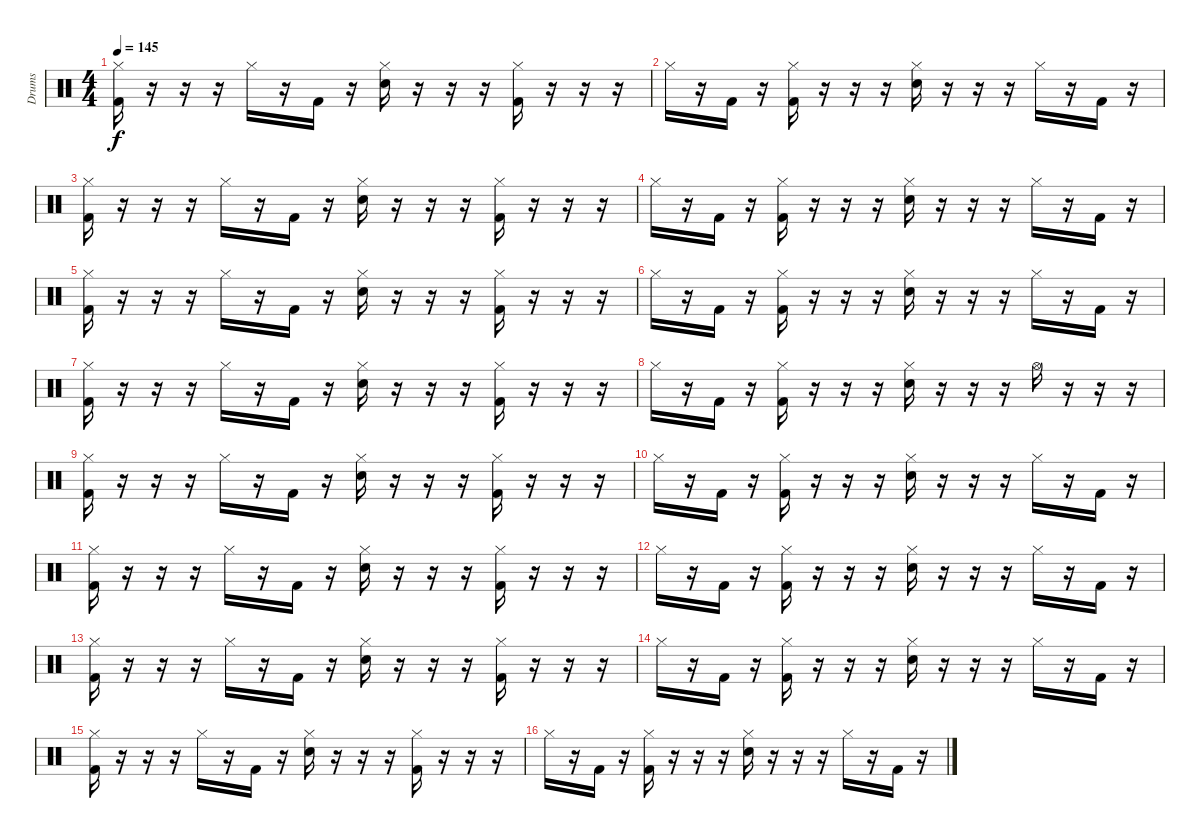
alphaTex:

\track ("Drums" "Drums") {instrument percussion}
\staff {score}
\articulation defaults
\ts (4 4)
\tempo 145
\clef neutral
\ks c
("Hi-Hat (closed)" "Kick (hit) 2").16{dy f} r.16 r.16 r.16 "Hi-Hat (closed)".16 r.16 "Kick (hit) 2".16 r.16 ("Hi-Hat (closed)" "Electric Snare (hit)").16 r.16 r.16 r.16 ("Hi-Hat (closed)" "Kick (hit) 2").16 r.16 r.16 r.16 |
"Hi-Hat (closed)".16 r.16 "Kick (hit) 2".16 r.16 ("Hi-Hat (closed)" "Kick (hit) 2").16 r.16 r.16 r.16 ("Hi-Hat (closed)" "Electric Snare (hit)").16 r.16 r.16 r.16 "Hi-Hat (closed)".16 r.16 "Kick (hit) 2".16 r.16 |
("Hi-Hat (closed)" "Kick (hit) 2").16 r.16 r.16 r.16 "Hi-Hat (closed)".16 r.16 "Kick (hit) 2".16 r.16 ("Hi-Hat (closed)" "Electric Snare (hit)").16 r.16 r.16 r.16 ("Hi-Hat (closed)" "Kick (hit) 2").16 r.16 r.16 r.16 |
"Hi-Hat (closed)".16 r.16 "Kick (hit) 2".16 r.16 ("Hi-Hat (closed)" "Kick (hit) 2").16 r.16 r.16 r.16 ("Hi-Hat (closed)" "Electric Snare (hit)").16 r.16 r.16 r.16 "Hi-Hat (closed)".16 r.16 "Kick (hit) 2".16 r.16 |
("Hi-Hat (closed)" "Kick (hit) 2").16 r.16 r.16 r.16 "Hi-Hat (closed)".16 r.16 "Kick (hit) 2".16 r.16 ("Hi-Hat (closed)" "Electric Snare (hit)").16 r.16 r.16 r.16 ("Hi-Hat (closed)" "Kick (hit) 2").16 r.16 r.16 r.16 |
"Hi-Hat (closed)".16 r.16 "Kick (hit) 2".16 r.16 ("Hi-Hat (closed)" "Kick (hit) 2").16 r.16 r.16 r.16 ("Hi-Hat (closed)" "Electric Snare (hit)").16 r.16 r.16 r.16 "Hi-Hat (closed)".16 r.16 "Kick (hit) 2".16 r.16 |
("Hi-Hat (closed)" "Kick (hit) 2").16 r.16 r.16 r.16 "Hi-Hat (closed)".16 r.16 "Kick (hit) 2".16 r.16 ("Hi-Hat (closed)" "Electric Snare (hit)").16 r.16 r.16 r.16 ("Hi-Hat (closed)" "Kick (hit) 2").16 r.16 r.16 r.16 |
"Hi-Hat (closed)".16 r.16 "Kick (hit) 2".16 r.16 ("Hi-Hat (closed)" "Kick (hit) 2").16 r.16 r.16 r.16 ("Hi-Hat (closed)" "Electric Snare (hit)").16 r.16 r.16 r.16 "Hi-Hat (open)".16 r.16 r.16 r.16 |
("Hi-Hat (closed)" "Kick (hit) 2").16 r.16 r.16 r.16 "Hi-Hat (closed)".16 r.16 "Kick (hit) 2".16 r.16 ("Hi-Hat (closed)" "Electric Snare (hit)").16 r.16 r.16 r.16 ("Hi-Hat (closed)" "Kick (hit) 2").16 r.16 r.16 r.16 |
"Hi-Hat (closed)".16 r.16 "Kick (hit) 2".16 r.16 ("Hi-Hat (closed)" "Kick (hit) 2").16 r.16 r.16 r.16 ("Hi-Hat (closed)" "Electric Snare (hit)").16 r.16 r.16 r.16 "Hi-Hat (closed)".16 r.16 "Kick (hit) 2".16 r.16 |
("Hi-Hat (closed)" "Kick (hit) 2").16 r.16 r.16 r.16 "Hi-Hat (closed)".16 r.16 "Kick (hit) 2".16 r.16 ("Hi-Hat (closed)" "Electric Snare (hit)").16 r.16 r.16 r.16 ("Hi-Hat (closed)" "Kick (hit) 2").16 r.16 r.16 r.16 |
"Hi-Hat (closed)".16 r.16 "Kick (hit) 2".16 r.16 ("Hi-Hat (closed)" "Kick (hit) 2").16 r.16 r.16 r.16 ("Hi-Hat (closed)" "Electric Snare (hit)").16 r.16 r.16 r.16 "Hi-Hat (closed)".16 r.16 "Kick (hit) 2".16 r.16 |
("Hi-Hat (closed)" "Kick (hit) 2").16 r.16 r.16 r.16 "Hi-Hat (closed)".16 r.16 "Kick (hit) 2".16 r.16 ("Hi-Hat (closed)" "Electric Snare (hit)").16 r.16 r.16 r.16 ("Hi-Hat (closed)" "Kick (hit) 2").16 r.16 r.16 r.16 |
"Hi-Hat (closed)".16 r.16 "Kick (hit) 2".16 r.16 ("Hi-Hat (closed)" "Kick (hit) 2").16 r.16 r.16 r.16 ("Hi-Hat (closed)" "Electric Snare (hit)").16 r.16 r.16 r.16 "Hi-Hat (closed)".16 r.16 "Kick (hit) 2".16 r.16 |
("Hi-Hat (closed)" "Kick (hit) 2").16 r.16 r.16 r.16 "Hi-Hat (closed)".16 r.16 "Kick (hit) 2".16 r.16 ("Hi-Hat (closed)" "Electric Snare (hit)").16 r.16 r.16 r.16 ("Hi-Hat (closed)" "Kick (hit) 2").16 r.16 r.16 r.16 |
"Hi-Hat (closed)".16 r.16 "Kick (hit) 2".16 r.16 ("Hi-Hat (closed)" "Kick (hit) 2").16 r.16 r.16 r.16 ("Hi-Hat (closed)" "Electric Snare (hit)").16 r.16 r.16 r.16 "Hi-Hat (closed)".16 r.16 "Kick (hit) 2".16 r.16
